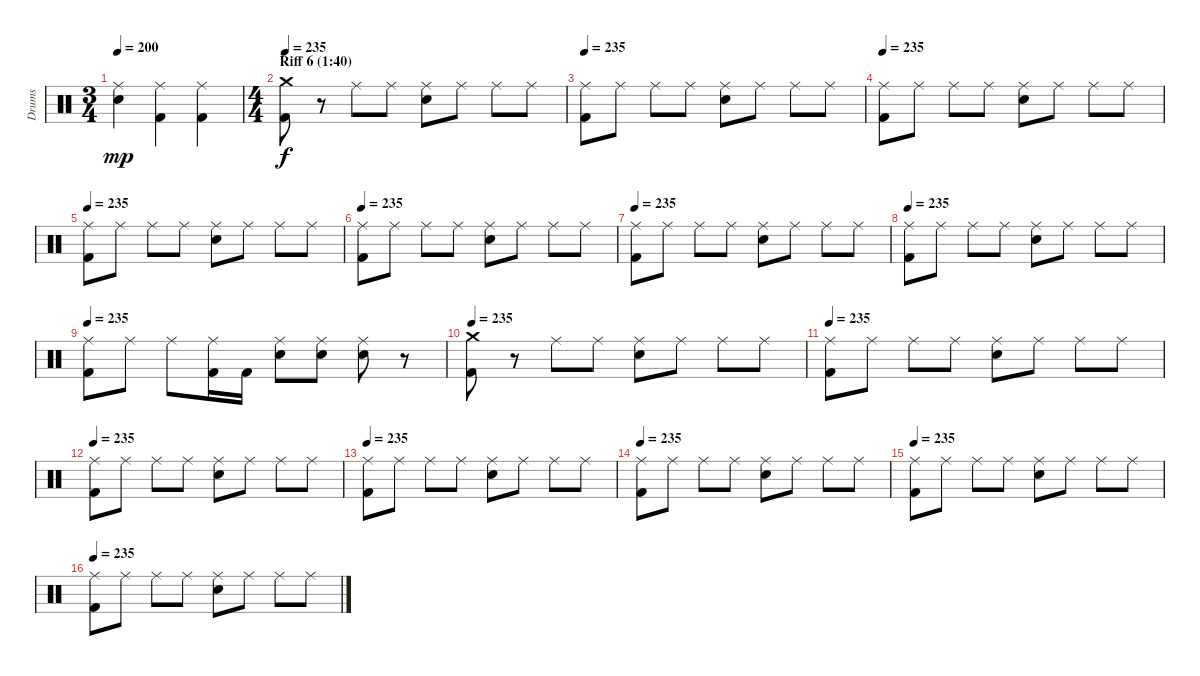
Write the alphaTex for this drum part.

\track ("Drums" "Drums") {instrument percussion}
\staff {score}
\articulation defaults
\ts (3 4)
\tempo 200
\clef neutral
\ks c
("Ride (middle)" "Electric Snare (hit)").4{dy mp} ("Ride (middle)" "Kick (hit) 2").4 ("Ride (middle)" "Kick (hit) 2").4 |
\ts (4 4)
\section ("" "Riff 6 (1:40)")
\tempo 235
("Crash medium (hit)" "Kick (hit) 2").8{dy f} r.8 "Ride (middle)".8 "Ride (middle)".8 ("Ride (middle)" "Electric Snare (hit)").8 "Ride (middle)".8 "Ride (middle)".8 "Ride (middle)".8 |
\tempo 235
("Ride (middle)" "Kick (hit) 2").8 "Ride (middle)".8 "Ride (middle)".8 "Ride (middle)".8 ("Ride (middle)" "Electric Snare (hit)").8 "Ride (middle)".8 "Ride (middle)".8 "Ride (middle)".8 |
\tempo 235
("Ride (middle)" "Kick (hit) 2").8 "Ride (middle)".8 "Ride (middle)".8 "Ride (middle)".8 ("Ride (middle)" "Electric Snare (hit)").8 "Ride (middle)".8 "Ride (middle)".8 "Ride (middle)".8 |
\tempo 235
("Ride (middle)" "Kick (hit) 2").8 "Ride (middle)".8 "Ride (middle)".8 "Ride (middle)".8 ("Ride (middle)" "Electric Snare (hit)").8 "Ride (middle)".8 "Ride (middle)".8 "Ride (middle)".8 |
\tempo 235
("Ride (middle)" "Kick (hit) 2").8 "Ride (middle)".8 "Ride (middle)".8 "Ride (middle)".8 ("Ride (middle)" "Electric Snare (hit)").8 "Ride (middle)".8 "Ride (middle)".8 "Ride (middle)".8 |
\tempo 235
("Ride (middle)" "Kick (hit) 2").8 "Ride (middle)".8 "Ride (middle)".8 "Ride (middle)".8 ("Ride (middle)" "Electric Snare (hit)").8 "Ride (middle)".8 "Ride (middle)".8 "Ride (middle)".8 |
\tempo 235
("Ride (middle)" "Kick (hit) 2").8 "Ride (middle)".8 "Ride (middle)".8 "Ride (middle)".8 ("Ride (middle)" "Electric Snare (hit)").8 "Ride (middle)".8 "Ride (middle)".8 "Ride (middle)".8 |
\tempo 235
("Ride (middle)" "Kick (hit) 2").8 "Ride (middle)".8 "Ride (middle)".8 ("Ride (middle)" "Kick (hit) 2").16 "Kick (hit) 2".16 ("Ride (middle)" "Electric Snare (hit)").8 ("Ride (middle)" "Electric Snare (hit)").8 ("Ride (middle)" "Electric Snare (hit)").8 r.8 |
\tempo 235
("Crash medium (hit)" "Kick (hit) 2").8 r.8 "Ride (middle)".8 "Ride (middle)".8 ("Ride (middle)" "Electric Snare (hit)").8 "Ride (middle)".8 "Ride (middle)".8 "Ride (middle)".8 |
\tempo 235
("Ride (middle)" "Kick (hit) 2").8 "Ride (middle)".8 "Ride (middle)".8 "Ride (middle)".8 ("Ride (middle)" "Electric Snare (hit)").8 "Ride (middle)".8 "Ride (middle)".8 "Ride (middle)".8 |
\tempo 235
("Ride (middle)" "Kick (hit) 2").8 "Ride (middle)".8 "Ride (middle)".8 "Ride (middle)".8 ("Ride (middle)" "Electric Snare (hit)").8 "Ride (middle)".8 "Ride (middle)".8 "Ride (middle)".8 |
\tempo 235
("Ride (middle)" "Kick (hit) 2").8 "Ride (middle)".8 "Ride (middle)".8 "Ride (middle)".8 ("Ride (middle)" "Electric Snare (hit)").8 "Ride (middle)".8 "Ride (middle)".8 "Ride (middle)".8 |
\tempo 235
("Ride (middle)" "Kick (hit) 2").8 "Ride (middle)".8 "Ride (middle)".8 "Ride (middle)".8 ("Ride (middle)" "Electric Snare (hit)").8 "Ride (middle)".8 "Ride (middle)".8 "Ride (middle)".8 |
\tempo 235
("Ride (middle)" "Kick (hit) 2").8 "Ride (middle)".8 "Ride (middle)".8 "Ride (middle)".8 ("Ride (middle)" "Electric Snare (hit)").8 "Ride (middle)".8 "Ride (middle)".8 "Ride (middle)".8 |
\tempo 235
("Ride (middle)" "Kick (hit) 2").8 "Ride (middle)".8 "Ride (middle)".8 "Ride (middle)".8 ("Ride (middle)" "Electric Snare (hit)").8 "Ride (middle)".8 "Ride (middle)".8 "Ride (middle)".8
